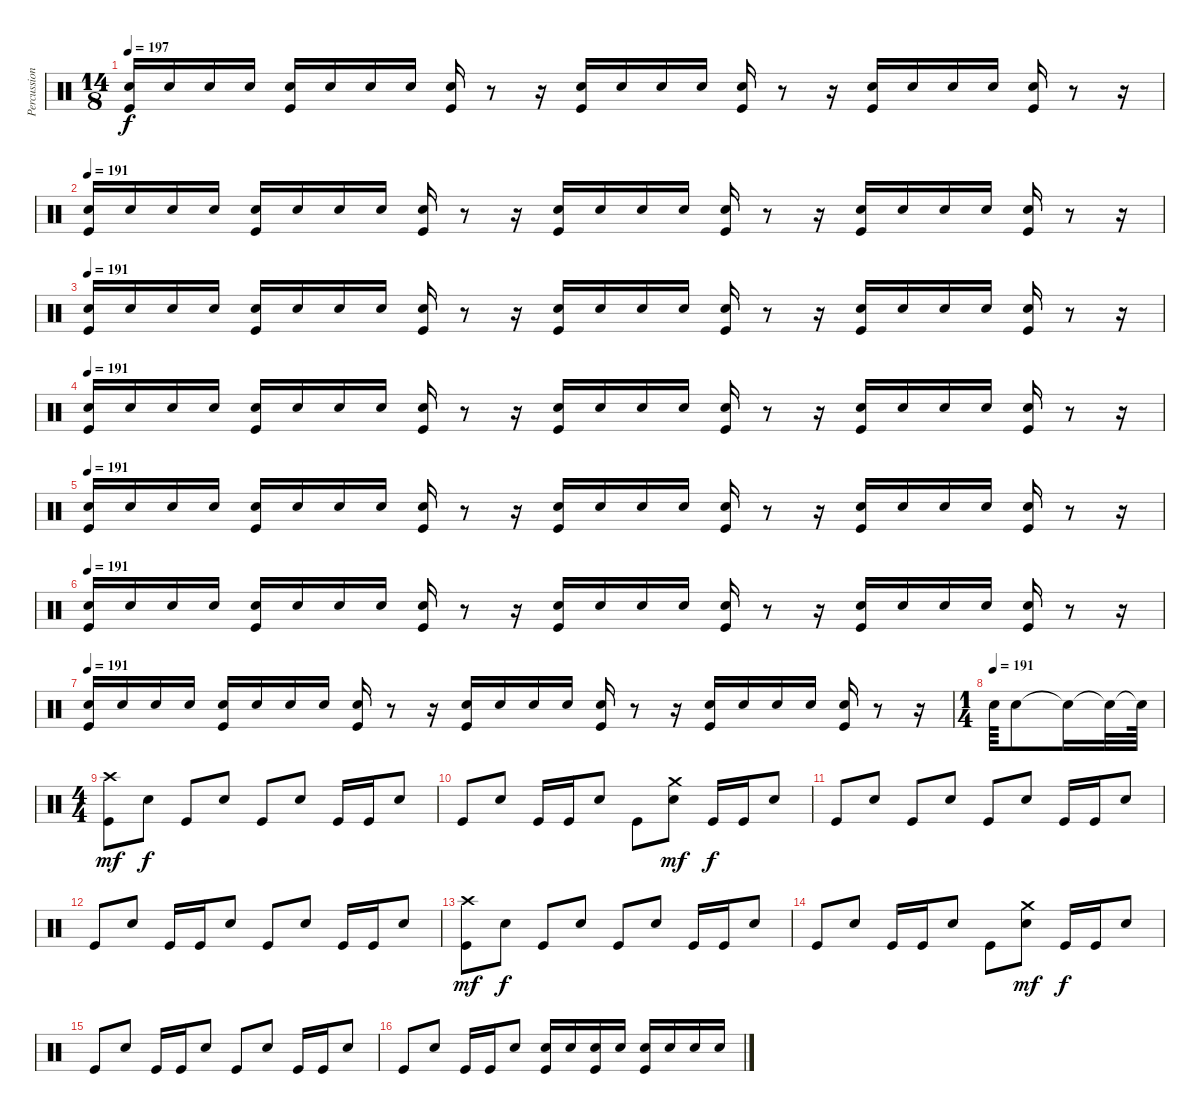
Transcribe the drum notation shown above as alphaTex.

\track ("Percussion" "Percussion") {instrument percussion}
\staff {score}
\articulation defaults
\ts (14 8)
\tempo 197
\tempo 191
\tempo 197
\clef neutral
\ks c
("Electric Snare (hit)" "Kick (hit)").16{dy f} "Electric Snare (hit)".16 "Electric Snare (hit)".16 "Electric Snare (hit)".16 ("Electric Snare (hit)" "Kick (hit)").16 "Electric Snare (hit)".16 "Electric Snare (hit)".16 "Electric Snare (hit)".16 ("Electric Snare (hit)" "Kick (hit)").16 r.8 r.16 ("Electric Snare (hit)" "Kick (hit)").16 "Electric Snare (hit)".16 "Electric Snare (hit)".16 "Electric Snare (hit)".16 ("Electric Snare (hit)" "Kick (hit)").16 r.8 r.16 ("Electric Snare (hit)" "Kick (hit)").16 "Electric Snare (hit)".16 "Electric Snare (hit)".16 "Electric Snare (hit)".16 ("Electric Snare (hit)" "Kick (hit)").16 r.8 r.16 |
\tempo 191
("Electric Snare (hit)" "Kick (hit)").16 "Electric Snare (hit)".16 "Electric Snare (hit)".16 "Electric Snare (hit)".16 ("Electric Snare (hit)" "Kick (hit)").16 "Electric Snare (hit)".16 "Electric Snare (hit)".16 "Electric Snare (hit)".16 ("Electric Snare (hit)" "Kick (hit)").16 r.8 r.16 ("Electric Snare (hit)" "Kick (hit)").16 "Electric Snare (hit)".16 "Electric Snare (hit)".16 "Electric Snare (hit)".16 ("Electric Snare (hit)" "Kick (hit)").16 r.8 r.16 ("Electric Snare (hit)" "Kick (hit)").16 "Electric Snare (hit)".16 "Electric Snare (hit)".16 "Electric Snare (hit)".16 ("Electric Snare (hit)" "Kick (hit)").16 r.8 r.16 |
\tempo 191
("Electric Snare (hit)" "Kick (hit)").16 "Electric Snare (hit)".16 "Electric Snare (hit)".16 "Electric Snare (hit)".16 ("Electric Snare (hit)" "Kick (hit)").16 "Electric Snare (hit)".16 "Electric Snare (hit)".16 "Electric Snare (hit)".16 ("Electric Snare (hit)" "Kick (hit)").16 r.8 r.16 ("Electric Snare (hit)" "Kick (hit)").16 "Electric Snare (hit)".16 "Electric Snare (hit)".16 "Electric Snare (hit)".16 ("Electric Snare (hit)" "Kick (hit)").16 r.8 r.16 ("Electric Snare (hit)" "Kick (hit)").16 "Electric Snare (hit)".16 "Electric Snare (hit)".16 "Electric Snare (hit)".16 ("Electric Snare (hit)" "Kick (hit)").16 r.8 r.16 |
\tempo 191
("Electric Snare (hit)" "Kick (hit)").16 "Electric Snare (hit)".16 "Electric Snare (hit)".16 "Electric Snare (hit)".16 ("Electric Snare (hit)" "Kick (hit)").16 "Electric Snare (hit)".16 "Electric Snare (hit)".16 "Electric Snare (hit)".16 ("Electric Snare (hit)" "Kick (hit)").16 r.8 r.16 ("Electric Snare (hit)" "Kick (hit)").16 "Electric Snare (hit)".16 "Electric Snare (hit)".16 "Electric Snare (hit)".16 ("Electric Snare (hit)" "Kick (hit)").16 r.8 r.16 ("Electric Snare (hit)" "Kick (hit)").16 "Electric Snare (hit)".16 "Electric Snare (hit)".16 "Electric Snare (hit)".16 ("Electric Snare (hit)" "Kick (hit)").16 r.8 r.16 |
\tempo 191
("Electric Snare (hit)" "Kick (hit)").16 "Electric Snare (hit)".16 "Electric Snare (hit)".16 "Electric Snare (hit)".16 ("Electric Snare (hit)" "Kick (hit)").16 "Electric Snare (hit)".16 "Electric Snare (hit)".16 "Electric Snare (hit)".16 ("Electric Snare (hit)" "Kick (hit)").16 r.8 r.16 ("Electric Snare (hit)" "Kick (hit)").16 "Electric Snare (hit)".16 "Electric Snare (hit)".16 "Electric Snare (hit)".16 ("Electric Snare (hit)" "Kick (hit)").16 r.8 r.16 ("Electric Snare (hit)" "Kick (hit)").16 "Electric Snare (hit)".16 "Electric Snare (hit)".16 "Electric Snare (hit)".16 ("Electric Snare (hit)" "Kick (hit)").16 r.8 r.16 |
\tempo 191
("Electric Snare (hit)" "Kick (hit)").16 "Electric Snare (hit)".16 "Electric Snare (hit)".16 "Electric Snare (hit)".16 ("Electric Snare (hit)" "Kick (hit)").16 "Electric Snare (hit)".16 "Electric Snare (hit)".16 "Electric Snare (hit)".16 ("Electric Snare (hit)" "Kick (hit)").16 r.8 r.16 ("Electric Snare (hit)" "Kick (hit)").16 "Electric Snare (hit)".16 "Electric Snare (hit)".16 "Electric Snare (hit)".16 ("Electric Snare (hit)" "Kick (hit)").16 r.8 r.16 ("Electric Snare (hit)" "Kick (hit)").16 "Electric Snare (hit)".16 "Electric Snare (hit)".16 "Electric Snare (hit)".16 ("Electric Snare (hit)" "Kick (hit)").16 r.8 r.16 |
\tempo 191
("Electric Snare (hit)" "Kick (hit)").16 "Electric Snare (hit)".16 "Electric Snare (hit)".16 "Electric Snare (hit)".16 ("Electric Snare (hit)" "Kick (hit)").16 "Electric Snare (hit)".16 "Electric Snare (hit)".16 "Electric Snare (hit)".16 ("Electric Snare (hit)" "Kick (hit)").16 r.8 r.16 ("Electric Snare (hit)" "Kick (hit)").16 "Electric Snare (hit)".16 "Electric Snare (hit)".16 "Electric Snare (hit)".16 ("Electric Snare (hit)" "Kick (hit)").16 r.8 r.16 ("Electric Snare (hit)" "Kick (hit)").16 "Electric Snare (hit)".16 "Electric Snare (hit)".16 "Electric Snare (hit)".16 ("Electric Snare (hit)" "Kick (hit)").16 r.8 r.16 |
\ts (1 4)
\tempo (191)
"Electric Snare (hit)".64 "Electric Snare (hit)".8 "Snare (hit)"{t}.16 "Snare (hit)"{t}.32 "Snare (hit)"{t}.64 |
\ts (4 4)
("Crash high (hit)" "Kick (hit)").8{dy mf} "Electric Snare (hit)".8{dy f} "Kick (hit)".8 "Electric Snare (hit)".8 "Kick (hit)".8 "Electric Snare (hit)".8 "Kick (hit)".16 "Kick (hit)".16 "Electric Snare (hit)".8 |
"Kick (hit)".8 "Electric Snare (hit)".8 "Kick (hit)".16 "Kick (hit)".16 "Electric Snare (hit)".8 "Kick (hit)".8 ("Crash medium (hit)" "Electric Snare (hit)").8{dy mf} "Kick (hit)".16{dy f} "Kick (hit)".16 "Electric Snare (hit)".8 |
"Kick (hit)".8 "Electric Snare (hit)".8 "Kick (hit)".8 "Electric Snare (hit)".8 "Kick (hit)".8 "Electric Snare (hit)".8 "Kick (hit)".16 "Kick (hit)".16 "Electric Snare (hit)".8 |
"Kick (hit)".8 "Electric Snare (hit)".8 "Kick (hit)".16 "Kick (hit)".16 "Electric Snare (hit)".8 "Kick (hit)".8 "Electric Snare (hit)".8 "Kick (hit)".16 "Kick (hit)".16 "Electric Snare (hit)".8 |
("Crash high (hit)" "Kick (hit)").8{dy mf} "Electric Snare (hit)".8{dy f} "Kick (hit)".8 "Electric Snare (hit)".8 "Kick (hit)".8 "Electric Snare (hit)".8 "Kick (hit)".16 "Kick (hit)".16 "Electric Snare (hit)".8 |
"Kick (hit)".8 "Electric Snare (hit)".8 "Kick (hit)".16 "Kick (hit)".16 "Electric Snare (hit)".8 "Kick (hit)".8 ("Crash medium (hit)" "Electric Snare (hit)").8{dy mf} "Kick (hit)".16{dy f} "Kick (hit)".16 "Electric Snare (hit)".8 |
"Kick (hit)".8 "Electric Snare (hit)".8 "Kick (hit)".16 "Kick (hit)".16 "Electric Snare (hit)".8 "Kick (hit)".8 "Electric Snare (hit)".8 "Kick (hit)".16 "Kick (hit)".16 "Electric Snare (hit)".8 |
"Kick (hit)".8 "Electric Snare (hit)".8 "Kick (hit)".16 "Kick (hit)".16 "Electric Snare (hit)".8 ("Electric Snare (hit)" "Kick (hit)").16 "Electric Snare (hit)".16 ("Electric Snare (hit)" "Kick (hit)").16 "Electric Snare (hit)".16 ("Electric Snare (hit)" "Kick (hit)").16 "Electric Snare (hit)".16 "Electric Snare (hit)".16 "Electric Snare (hit)".16
